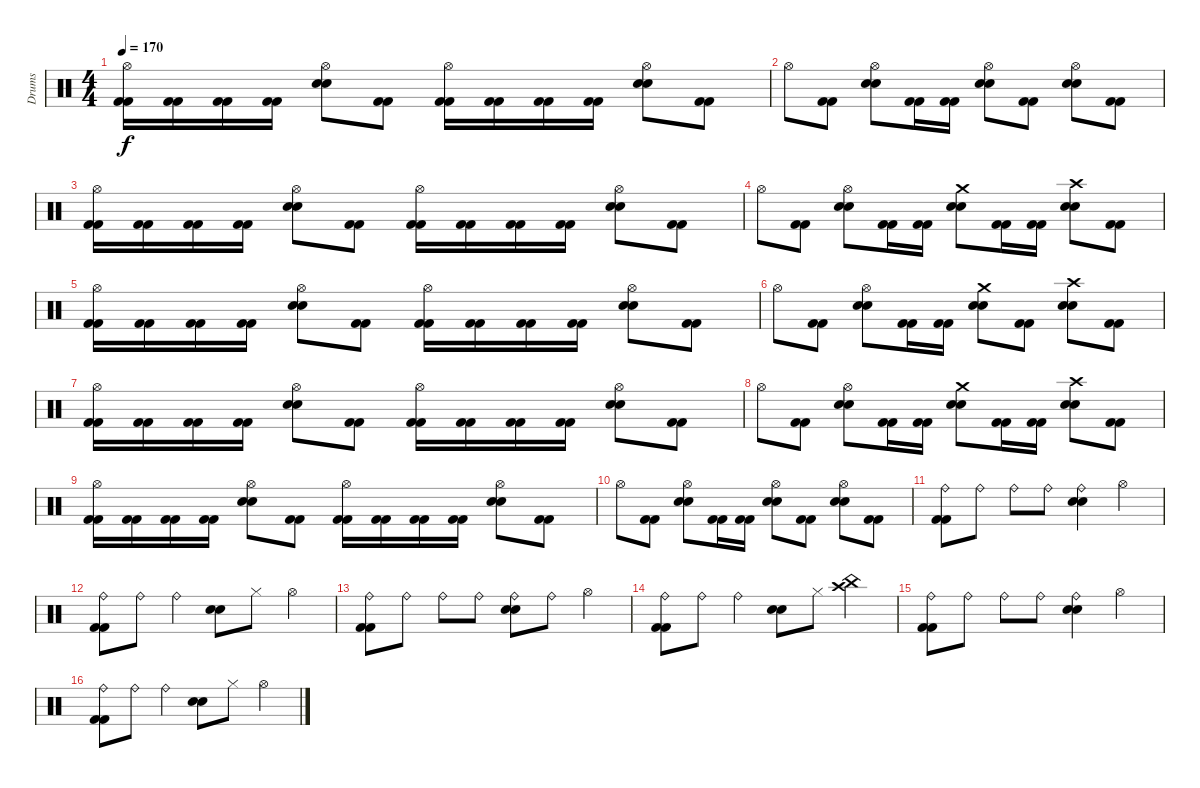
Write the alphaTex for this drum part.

\track ("Drums" "Drums") {instrument percussion}
\staff {score}
\articulation defaults
\ts (4 4)
\tempo 170
\clef neutral
\ks c
("Hi-Hat (open)" "Kick (hit) 2" "Kick (hit) 2").16{dy f} ("Kick (hit) 2" "Kick (hit) 2").16 ("Kick (hit) 2" "Kick (hit) 2").16 ("Kick (hit) 2" "Kick (hit) 2").16 ("Hi-Hat (open)" "Electric Snare (hit)" "Electric Snare (hit)").8 ("Kick (hit) 2" "Kick (hit) 2").8 ("Hi-Hat (open)" "Kick (hit) 2" "Kick (hit) 2").16 ("Kick (hit) 2" "Kick (hit) 2").16 ("Kick (hit) 2" "Kick (hit) 2").16 ("Kick (hit) 2" "Kick (hit) 2").16 ("Hi-Hat (open)" "Electric Snare (hit)" "Electric Snare (hit)").8 ("Kick (hit) 2" "Kick (hit) 2").8 |
"Hi-Hat (open)".8 ("Kick (hit) 2" "Kick (hit) 2").8 ("Hi-Hat (open)" "Electric Snare (hit)" "Electric Snare (hit)").8 ("Kick (hit) 2" "Kick (hit) 2").16 ("Kick (hit) 2" "Kick (hit) 2").16 ("Hi-Hat (open)" "Electric Snare (hit)" "Electric Snare (hit)").8 ("Kick (hit) 2" "Kick (hit) 2").8 ("Hi-Hat (open)" "Electric Snare (hit)" "Electric Snare (hit)").8 ("Kick (hit) 2" "Kick (hit) 2").8 |
("Hi-Hat (open)" "Kick (hit) 2" "Kick (hit) 2").16 ("Kick (hit) 2" "Kick (hit) 2").16 ("Kick (hit) 2" "Kick (hit) 2").16 ("Kick (hit) 2" "Kick (hit) 2").16 ("Hi-Hat (open)" "Electric Snare (hit)" "Electric Snare (hit)").8 ("Kick (hit) 2" "Kick (hit) 2").8 ("Hi-Hat (open)" "Kick (hit) 2" "Kick (hit) 2").16 ("Kick (hit) 2" "Kick (hit) 2").16 ("Kick (hit) 2" "Kick (hit) 2").16 ("Kick (hit) 2" "Kick (hit) 2").16 ("Hi-Hat (open)" "Electric Snare (hit)" "Electric Snare (hit)").8 ("Kick (hit) 2" "Kick (hit) 2").8 |
"Hi-Hat (open)".8 ("Kick (hit) 2" "Kick (hit) 2").8 ("Hi-Hat (open)" "Electric Snare (hit)" "Electric Snare (hit)").8 ("Kick (hit) 2" "Kick (hit) 2").16 ("Kick (hit) 2" "Kick (hit) 2").16 ("Crash medium (hit)" "Electric Snare (hit)" "Electric Snare (hit)").8 ("Kick (hit) 2" "Kick (hit) 2").16 ("Kick (hit) 2" "Kick (hit) 2").16 ("Crash high (hit)" "Electric Snare (hit)" "Electric Snare (hit)").8 ("Kick (hit) 2" "Kick (hit) 2").8 |
("Hi-Hat (open)" "Kick (hit) 2" "Kick (hit) 2").16 ("Kick (hit) 2" "Kick (hit) 2").16 ("Kick (hit) 2" "Kick (hit) 2").16 ("Kick (hit) 2" "Kick (hit) 2").16 ("Hi-Hat (open)" "Electric Snare (hit)" "Electric Snare (hit)").8 ("Kick (hit) 2" "Kick (hit) 2").8 ("Hi-Hat (open)" "Kick (hit) 2" "Kick (hit) 2").16 ("Kick (hit) 2" "Kick (hit) 2").16 ("Kick (hit) 2" "Kick (hit) 2").16 ("Kick (hit) 2" "Kick (hit) 2").16 ("Hi-Hat (open)" "Electric Snare (hit)" "Electric Snare (hit)").8 ("Kick (hit) 2" "Kick (hit) 2").8 |
"Hi-Hat (open)".8 ("Kick (hit) 2" "Kick (hit) 2").8 ("Hi-Hat (open)" "Electric Snare (hit)" "Electric Snare (hit)").8 ("Kick (hit) 2" "Kick (hit) 2").16 ("Kick (hit) 2" "Kick (hit) 2").16 ("Crash medium (hit)" "Electric Snare (hit)" "Electric Snare (hit)").8 ("Kick (hit) 2" "Kick (hit) 2").8 ("Crash high (hit)" "Electric Snare (hit)" "Electric Snare (hit)").8 ("Kick (hit) 2" "Kick (hit) 2").8 |
("Hi-Hat (open)" "Kick (hit) 2" "Kick (hit) 2").16 ("Kick (hit) 2" "Kick (hit) 2").16 ("Kick (hit) 2" "Kick (hit) 2").16 ("Kick (hit) 2" "Kick (hit) 2").16 ("Hi-Hat (open)" "Electric Snare (hit)" "Electric Snare (hit)").8 ("Kick (hit) 2" "Kick (hit) 2").8 ("Hi-Hat (open)" "Kick (hit) 2" "Kick (hit) 2").16 ("Kick (hit) 2" "Kick (hit) 2").16 ("Kick (hit) 2" "Kick (hit) 2").16 ("Kick (hit) 2" "Kick (hit) 2").16 ("Hi-Hat (open)" "Electric Snare (hit)" "Electric Snare (hit)").8 ("Kick (hit) 2" "Kick (hit) 2").8 |
"Hi-Hat (open)".8 ("Kick (hit) 2" "Kick (hit) 2").8 ("Hi-Hat (open)" "Electric Snare (hit)" "Electric Snare (hit)").8 ("Kick (hit) 2" "Kick (hit) 2").16 ("Kick (hit) 2" "Kick (hit) 2").16 ("Crash medium (hit)" "Electric Snare (hit)" "Electric Snare (hit)").8 ("Kick (hit) 2" "Kick (hit) 2").16 ("Kick (hit) 2" "Kick (hit) 2").16 ("Crash high (hit)" "Electric Snare (hit)" "Electric Snare (hit)").8 ("Kick (hit) 2" "Kick (hit) 2").8 |
("Hi-Hat (open)" "Kick (hit) 2" "Kick (hit) 2").16 ("Kick (hit) 2" "Kick (hit) 2").16 ("Kick (hit) 2" "Kick (hit) 2").16 ("Kick (hit) 2" "Kick (hit) 2").16 ("Hi-Hat (open)" "Electric Snare (hit)" "Electric Snare (hit)").8 ("Kick (hit) 2" "Kick (hit) 2").8 ("Hi-Hat (open)" "Kick (hit) 2" "Kick (hit) 2").16 ("Kick (hit) 2" "Kick (hit) 2").16 ("Kick (hit) 2" "Kick (hit) 2").16 ("Kick (hit) 2" "Kick (hit) 2").16 ("Hi-Hat (open)" "Electric Snare (hit)" "Electric Snare (hit)").8 ("Kick (hit) 2" "Kick (hit) 2").8 |
"Hi-Hat (open)".8 ("Kick (hit) 2" "Kick (hit) 2").8 ("Hi-Hat (open)" "Electric Snare (hit)" "Electric Snare (hit)").8 ("Kick (hit) 2" "Kick (hit) 2").16 ("Kick (hit) 2" "Kick (hit) 2").16 ("Hi-Hat (open)" "Electric Snare (hit)" "Electric Snare (hit)").8 ("Kick (hit) 2" "Kick (hit) 2").8 ("Hi-Hat (open)" "Electric Snare (hit)" "Electric Snare (hit)").8 ("Kick (hit) 2" "Kick (hit) 2").8 |
("Ride (bell)" "Kick (hit) 2" "Kick (hit) 2").8 "Ride (bell)".8 "Ride (bell)".8 "Ride (bell)".8 ("Ride (bell)" "Electric Snare (hit)" "Electric Snare (hit)").4 "Hi-Hat (open)".4 |
("Ride (bell)" "Kick (hit) 2" "Kick (hit) 2").8 "Ride (bell)".8 "Ride (bell)".4 ("Electric Snare (hit)" "Electric Snare (hit)").8 "Hi-Hat (closed)".8 "Hi-Hat (open)".4 |
("Ride (bell)" "Kick (hit) 2" "Kick (hit) 2").8 "Ride (bell)".8 "Ride (bell)".8 "Ride (bell)".8 ("Ride (bell)" "Electric Snare (hit)" "Electric Snare (hit)").8 "Ride (bell)".8 "Hi-Hat (open)".4 |
("Ride (bell)" "Kick (hit) 2" "Kick (hit) 2").8 "Ride (bell)".8 "Ride (bell)".4 ("Electric Snare (hit)" "Electric Snare (hit)").8 "Hi-Hat (closed)".8 ("Crash high (hit)" "China (hit)").4 |
("Ride (bell)" "Kick (hit) 2" "Kick (hit) 2").8 "Ride (bell)".8 "Ride (bell)".8 "Ride (bell)".8 ("Ride (bell)" "Electric Snare (hit)" "Electric Snare (hit)").4 "Hi-Hat (open)".4 |
("Ride (bell)" "Kick (hit) 2" "Kick (hit) 2").8 "Ride (bell)".8 "Ride (bell)".4 ("Electric Snare (hit)" "Electric Snare (hit)").8 "Hi-Hat (closed)".8 "Hi-Hat (open)".4
